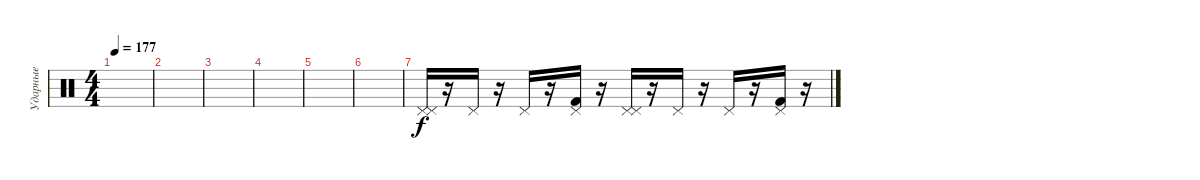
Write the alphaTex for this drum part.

\track ("Ударные" "Ударные") {instrument percussion}
\staff {score}
\articulation defaults
\ts (4 4)
\tempo 177
\clef neutral
\ks c
|
|
|
|
|
|
("Pedal Hi-Hat (hit)" "Pedal Hi-Hat (hit)").16 r.16 "Pedal Hi-Hat (hit)".16 r.16 "Pedal Hi-Hat (hit)".16 r.16 ("Kick (hit) 2" "Pedal Hi-Hat (hit)").16 r.16 ("Pedal Hi-Hat (hit)" "Pedal Hi-Hat (hit)").16 r.16 "Pedal Hi-Hat (hit)".16 r.16 "Pedal Hi-Hat (hit)".16 r.16 ("Kick (hit) 2" "Pedal Hi-Hat (hit)").16 r.16
